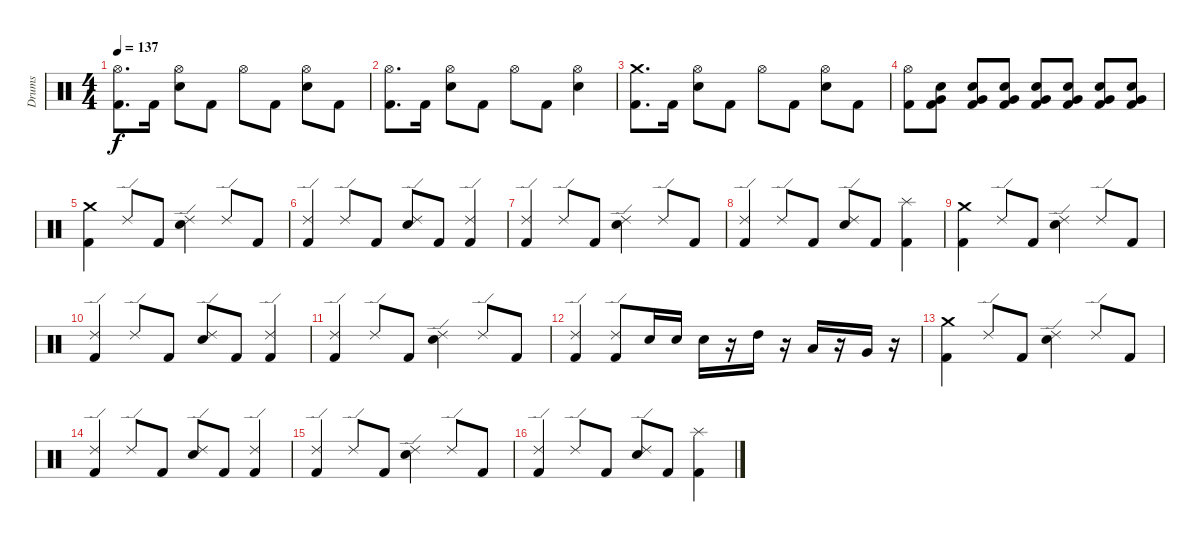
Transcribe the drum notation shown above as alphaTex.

\track ("Drums" "Drums") {instrument percussion}
\staff {score}
\articulation defaults
\ts (4 4)
\tempo 137
\clef neutral
\ks c
("Hi-Hat (open)" "Kick (hit) 2").8{d dy f} "Kick (hit) 2".16 ("Hi-Hat (open)" "Electric Snare (hit)").8 "Kick (hit) 2".8 "Hi-Hat (open)".8 "Kick (hit) 2".8 ("Hi-Hat (open)" "Electric Snare (hit)").8 "Kick (hit) 2".8 |
("Hi-Hat (open)" "Kick (hit) 2").8{d} "Kick (hit) 2".16 ("Hi-Hat (open)" "Electric Snare (hit)").8 "Kick (hit) 2".8 "Hi-Hat (open)".8 "Kick (hit) 2".8 ("Hi-Hat (open)" "Electric Snare (hit)").4 |
("Crash medium (hit)" "Kick (hit) 2").8{d} "Kick (hit) 2".16 ("Hi-Hat (open)" "Electric Snare (hit)").8 "Kick (hit) 2".8 "Hi-Hat (open)".8 "Kick (hit) 2".8 ("Hi-Hat (open)" "Electric Snare (hit)").8 "Kick (hit) 2".8 |
("Hi-Hat (open)" "Kick (hit) 2").8 ("Very Low Tom (hit)" "Electric Snare (hit)" "Kick (hit) 2").8 ("Very Low Tom (hit)" "Electric Snare (hit)" "Kick (hit) 2").8 ("Very Low Tom (hit)" "Electric Snare (hit)" "Kick (hit) 2").8 ("Very Low Tom (hit)" "Electric Snare (hit)" "Kick (hit) 2").8 ("Very Low Tom (hit)" "Electric Snare (hit)" "Kick (hit) 2").8 ("Very Low Tom (hit)" "Electric Snare (hit)" "Kick (hit) 2").8 ("Very Low Tom (hit)" "Electric Snare (hit)" "Kick (hit) 2").8 |
("Kick (hit) 2" "Crash medium (hit)").4 "Ride (edge) 2".8 "Kick (hit) 2".8 ("Ride (edge) 2" "Electric Snare (hit)").4 "Ride (edge) 2".8 "Kick (hit) 2".8 |
("Ride (edge) 2" "Kick (hit) 2").4 "Ride (edge) 2".8 "Kick (hit) 2".8 ("Ride (edge) 2" "Electric Snare (hit)").8 "Kick (hit) 2".8 ("Ride (edge) 2" "Kick (hit) 2").4 |
("Ride (edge) 2" "Kick (hit) 2").4 "Ride (edge) 2".8 "Kick (hit) 2".8 ("Ride (edge) 2" "Electric Snare (hit)").4 "Ride (edge) 2".8 "Kick (hit) 2".8 |
("Ride (edge) 2" "Kick (hit) 2").4 "Ride (edge) 2".8 "Kick (hit) 2".8 ("Ride (edge) 2" "Electric Snare (hit)").8 "Kick (hit) 2".8 ("Splash (hit)" "Kick (hit) 2").4 |
("Kick (hit) 2" "Crash medium (hit)").4 "Ride (edge) 2".8 "Kick (hit) 2".8 ("Ride (edge) 2" "Electric Snare (hit)").4 "Ride (edge) 2".8 "Kick (hit) 2".8 |
("Ride (edge) 2" "Kick (hit) 2").4 "Ride (edge) 2".8 "Kick (hit) 2".8 ("Ride (edge) 2" "Electric Snare (hit)").8 "Kick (hit) 2".8 ("Ride (edge) 2" "Kick (hit) 2").4 |
("Ride (edge) 2" "Kick (hit) 2").4 "Ride (edge) 2".8 "Kick (hit) 2".8 ("Ride (edge) 2" "Electric Snare (hit)").4 "Ride (edge) 2".8 "Kick (hit) 2".8 |
("Ride (edge) 2" "Kick (hit) 2").4 ("Ride (edge) 2" "Kick (hit) 2").8 "Electric Snare (hit)".16 "Electric Snare (hit)".16 "Electric Snare (hit)".16 r.16 "High Tom (hit)".16 r.16 "Low Tom (hit)".16 r.16 "Very Low Tom (hit)".16 r.16 |
("Kick (hit) 2" "Crash medium (hit)").4 "Ride (edge) 2".8 "Kick (hit) 2".8 ("Ride (edge) 2" "Electric Snare (hit)").4 "Ride (edge) 2".8 "Kick (hit) 2".8 |
("Ride (edge) 2" "Kick (hit) 2").4 "Ride (edge) 2".8 "Kick (hit) 2".8 ("Ride (edge) 2" "Electric Snare (hit)").8 "Kick (hit) 2".8 ("Ride (edge) 2" "Kick (hit) 2").4 |
("Ride (edge) 2" "Kick (hit) 2").4 "Ride (edge) 2".8 "Kick (hit) 2".8 ("Ride (edge) 2" "Electric Snare (hit)").4 "Ride (edge) 2".8 "Kick (hit) 2".8 |
("Ride (edge) 2" "Kick (hit) 2").4 "Ride (edge) 2".8 "Kick (hit) 2".8 ("Ride (edge) 2" "Electric Snare (hit)").8 "Kick (hit) 2".8 ("Splash (hit)" "Kick (hit) 2").4
